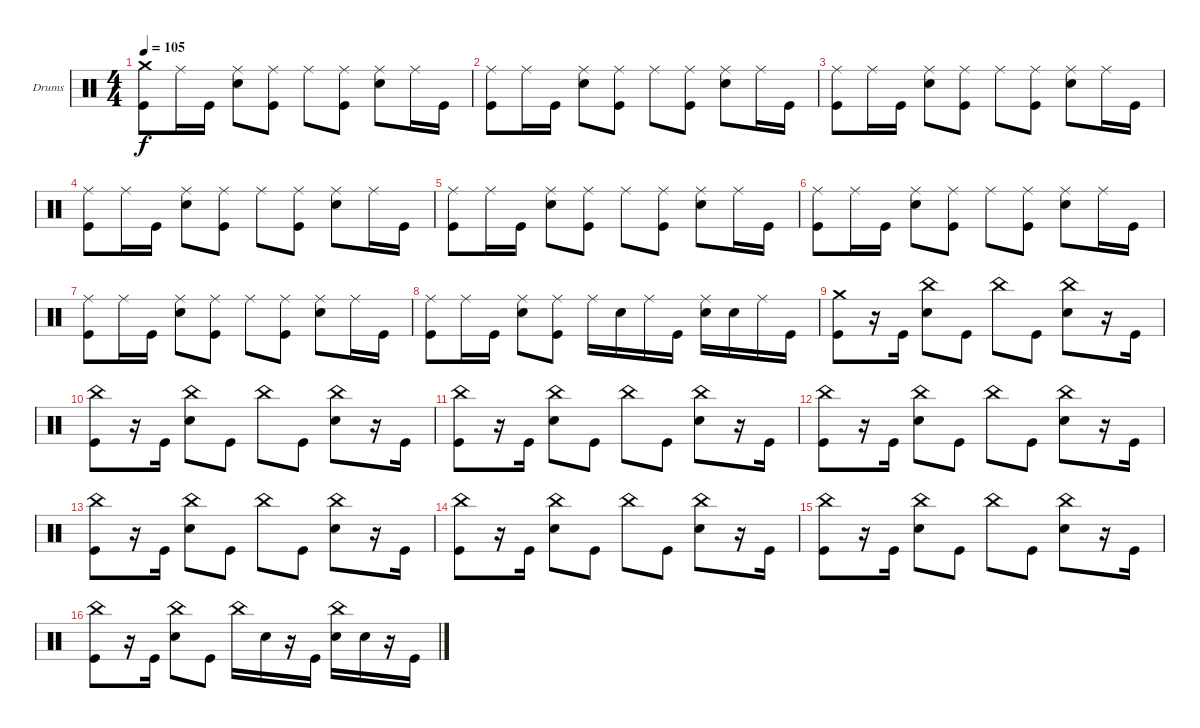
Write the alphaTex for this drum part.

\bracketExtendMode groupsimilarinstruments
\firstSystemTrackNameOrientation horizontal
\otherSystemsTrackNameOrientation horizontal
\track ("Drumkit" "Drums") {instrument percussion}
\staff {score}
\articulation defaults
\ts (4 4)
\tempo 105
\clef neutral
\ks c
("Kick (hit)" "Crash medium (hit)").8{dy f} "Ride (middle)".16 "Kick (hit)".16 ("Snare (hit) 2" "Ride (middle)").8 ("Kick (hit)" "Ride (middle)").8 "Ride (middle)".8 ("Kick (hit)" "Ride (middle)").8 ("Snare (hit) 2" "Ride (middle)").8 "Ride (middle)".16 "Kick (hit)".16 |
("Kick (hit)" "Ride (middle)").8 "Ride (middle)".16 "Kick (hit)".16 ("Snare (hit) 2" "Ride (middle)").8 ("Kick (hit)" "Ride (middle)").8 "Ride (middle)".8 ("Kick (hit)" "Ride (middle)").8 ("Snare (hit) 2" "Ride (middle)").8 "Ride (middle)".16 "Kick (hit)".16 |
("Kick (hit)" "Ride (middle)").8 "Ride (middle)".16 "Kick (hit)".16 ("Snare (hit) 2" "Ride (middle)").8 ("Kick (hit)" "Ride (middle)").8 "Ride (middle)".8 ("Kick (hit)" "Ride (middle)").8 ("Snare (hit) 2" "Ride (middle)").8 "Ride (middle)".16 "Kick (hit)".16 |
("Kick (hit)" "Ride (middle)").8 "Ride (middle)".16 "Kick (hit)".16 ("Snare (hit) 2" "Ride (middle)").8 ("Kick (hit)" "Ride (middle)").8 "Ride (middle)".8 ("Kick (hit)" "Ride (middle)").8 ("Snare (hit) 2" "Ride (middle)").8 "Ride (middle)".16 "Kick (hit)".16 |
("Kick (hit)" "Ride (middle)").8 "Ride (middle)".16 "Kick (hit)".16 ("Snare (hit) 2" "Ride (middle)").8 ("Kick (hit)" "Ride (middle)").8 "Ride (middle)".8 ("Kick (hit)" "Ride (middle)").8 ("Snare (hit) 2" "Ride (middle)").8 "Ride (middle)".16 "Kick (hit)".16 |
("Kick (hit)" "Ride (middle)").8 "Ride (middle)".16 "Kick (hit)".16 ("Snare (hit) 2" "Ride (middle)").8 ("Kick (hit)" "Ride (middle)").8 "Ride (middle)".8 ("Kick (hit)" "Ride (middle)").8 ("Snare (hit) 2" "Ride (middle)").8 "Ride (middle)".16 "Kick (hit)".16 |
("Kick (hit)" "Ride (middle)").8 "Ride (middle)".16 "Kick (hit)".16 ("Snare (hit) 2" "Ride (middle)").8 ("Kick (hit)" "Ride (middle)").8 "Ride (middle)".8 ("Kick (hit)" "Ride (middle)").8 ("Snare (hit) 2" "Ride (middle)").8 "Ride (middle)".16 "Kick (hit)".16 |
("Kick (hit)" "Ride (middle)").8 "Ride (middle)".16 "Kick (hit)".16 ("Snare (hit) 2" "Ride (middle)").8 ("Kick (hit)" "Ride (middle)").8 "Ride (middle)".16 "Snare (hit) 2".16 "Ride (middle)".16 "Kick (hit)".16 ("Snare (hit) 2" "Ride (middle)").16 "Snare (hit) 2".16 "Ride (middle)".16 "Kick (hit)".16 |
("Kick (hit)" "Crash medium (hit)").8 r.16 "Kick (hit)".16 ("Snare (hit) 2" "China (hit)").8 "Kick (hit)".8 "China (hit)".8 "Kick (hit)".8 ("Snare (hit) 2" "China (hit)").8 r.16 "Kick (hit)".16 |
("Kick (hit)" "China (hit)").8 r.16 "Kick (hit)".16 ("Snare (hit) 2" "China (hit)").8 "Kick (hit)".8 "China (hit)".8 "Kick (hit)".8 ("Snare (hit) 2" "China (hit)").8 r.16 "Kick (hit)".16 |
("Kick (hit)" "China (hit)").8 r.16 "Kick (hit)".16 ("Snare (hit) 2" "China (hit)").8 "Kick (hit)".8 "China (hit)".8 "Kick (hit)".8 ("Snare (hit) 2" "China (hit)").8 r.16 "Kick (hit)".16 |
("Kick (hit)" "China (hit)").8 r.16 "Kick (hit)".16 ("Snare (hit) 2" "China (hit)").8 "Kick (hit)".8 "China (hit)".8 "Kick (hit)".8 ("Snare (hit) 2" "China (hit)").8 r.16 "Kick (hit)".16 |
("Kick (hit)" "China (hit)").8 r.16 "Kick (hit)".16 ("Snare (hit) 2" "China (hit)").8 "Kick (hit)".8 "China (hit)".8 "Kick (hit)".8 ("Snare (hit) 2" "China (hit)").8 r.16 "Kick (hit)".16 |
("Kick (hit)" "China (hit)").8 r.16 "Kick (hit)".16 ("Snare (hit) 2" "China (hit)").8 "Kick (hit)".8 "China (hit)".8 "Kick (hit)".8 ("Snare (hit) 2" "China (hit)").8 r.16 "Kick (hit)".16 |
("Kick (hit)" "China (hit)").8 r.16 "Kick (hit)".16 ("Snare (hit) 2" "China (hit)").8 "Kick (hit)".8 "China (hit)".8 "Kick (hit)".8 ("Snare (hit) 2" "China (hit)").8 r.16 "Kick (hit)".16 |
("Kick (hit)" "China (hit)").8 r.16 "Kick (hit)".16 ("Snare (hit) 2" "China (hit)").8 "Kick (hit)".8 "China (hit)".16 "Snare (hit) 2".16 r.16 "Kick (hit)".16 ("Snare (hit) 2" "China (hit)").16 "Snare (hit) 2".16 r.16 "Kick (hit)".16
